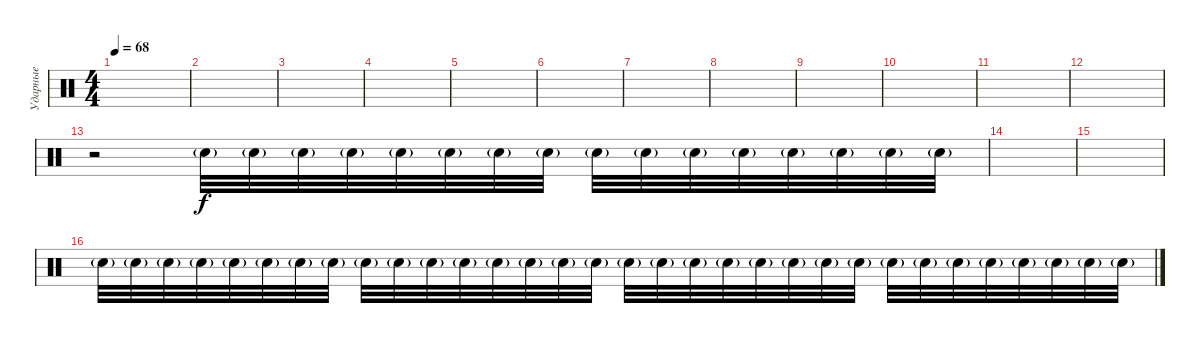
\track ("Ударные" "Ударные") {instrument percussion}
\staff {score}
\articulation defaults
\ts (4 4)
\tempo 68
\clef neutral
\ks c
|
|
|
|
|
|
|
|
|
|
|
|
r.2 "Snare (hit) 2"{g}.32 "Snare (hit) 2"{g}.32 "Snare (hit) 2"{g}.32 "Snare (hit) 2"{g}.32 "Snare (hit) 2"{g}.32 "Snare (hit) 2"{g}.32 "Snare (hit) 2"{g}.32 "Snare (hit) 2"{g}.32 "Snare (hit) 2"{g}.32 "Snare (hit) 2"{g}.32 "Snare (hit) 2"{g}.32 "Snare (hit) 2"{g}.32 "Snare (hit) 2"{g}.32 "Snare (hit) 2"{g}.32 "Snare (hit) 2"{g}.32 "Snare (hit) 2"{g}.32 |
|
|
"Snare (hit) 2"{g}.32 "Snare (hit) 2"{g}.32 "Snare (hit) 2"{g}.32 "Snare (hit) 2"{g}.32 "Snare (hit) 2"{g}.32 "Snare (hit) 2"{g}.32 "Snare (hit) 2"{g}.32 "Snare (hit) 2"{g}.32 "Snare (hit) 2"{g}.32 "Snare (hit) 2"{g}.32 "Snare (hit) 2"{g}.32 "Snare (hit) 2"{g}.32 "Snare (hit) 2"{g}.32 "Snare (hit) 2"{g}.32 "Snare (hit) 2"{g}.32 "Snare (hit) 2"{g}.32 "Snare (hit) 2"{g}.32 "Snare (hit) 2"{g}.32 "Snare (hit) 2"{g}.32 "Snare (hit) 2"{g}.32 "Snare (hit) 2"{g}.32 "Snare (hit) 2"{g}.32 "Snare (hit) 2"{g}.32 "Snare (hit) 2"{g}.32 "Snare (hit) 2"{g}.32 "Snare (hit) 2"{g}.32 "Snare (hit) 2"{g}.32 "Snare (hit) 2"{g}.32 "Snare (hit) 2"{g}.32 "Snare (hit) 2"{g}.32 "Snare (hit) 2"{g}.32 "Snare (hit) 2"{g}.32
